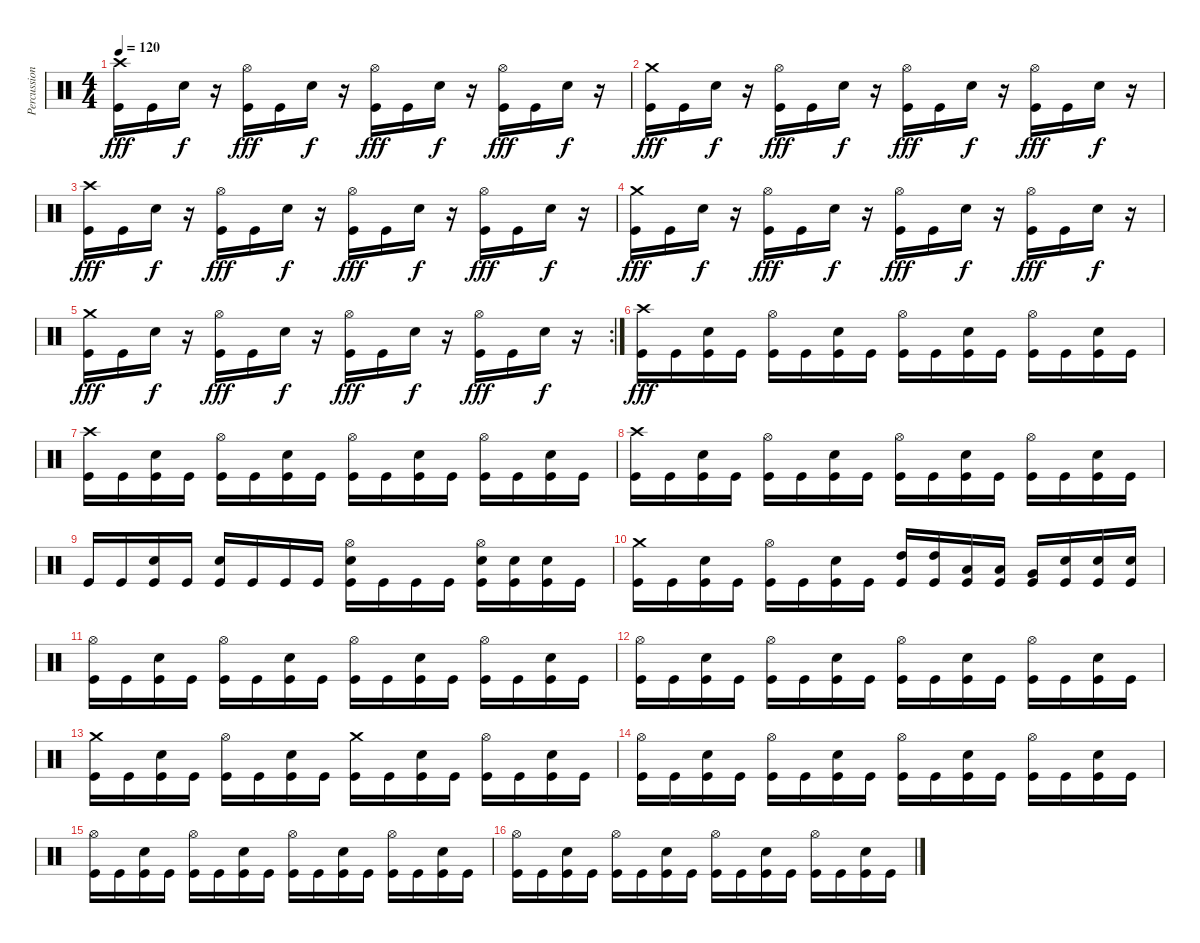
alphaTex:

\track ("Percussion" "Percussion") {instrument percussion}
\staff {score}
\articulation defaults
\ts (4 4)
\tempo 120
\clef neutral
\ks c
("Crash high (hit)" "Kick (hit)").16{dy fff} "Kick (hit)".16 "Electric Snare (hit)".16{dy f} r.16 ("Hi-Hat (open)" "Kick (hit)").16{dy fff} "Kick (hit)".16 "Electric Snare (hit)".16{dy f} r.16 ("Hi-Hat (open)" "Kick (hit)").16{dy fff} "Kick (hit)".16 "Electric Snare (hit)".16{dy f} r.16 ("Hi-Hat (open)" "Kick (hit)").16{dy fff} "Kick (hit)".16 "Electric Snare (hit)".16{dy f} r.16 |
("Crash medium (hit)" "Kick (hit)").16{dy fff} "Kick (hit)".16 "Electric Snare (hit)".16{dy f} r.16 ("Hi-Hat (open)" "Kick (hit)").16{dy fff} "Kick (hit)".16 "Electric Snare (hit)".16{dy f} r.16 ("Hi-Hat (open)" "Kick (hit)").16{dy fff} "Kick (hit)".16 "Electric Snare (hit)".16{dy f} r.16 ("Hi-Hat (open)" "Kick (hit)").16{dy fff} "Kick (hit)".16 "Electric Snare (hit)".16{dy f} r.16 |
("Crash high (hit)" "Kick (hit)").16{dy fff} "Kick (hit)".16 "Electric Snare (hit)".16{dy f} r.16 ("Hi-Hat (open)" "Kick (hit)").16{dy fff} "Kick (hit)".16 "Electric Snare (hit)".16{dy f} r.16 ("Hi-Hat (open)" "Kick (hit)").16{dy fff} "Kick (hit)".16 "Electric Snare (hit)".16{dy f} r.16 ("Hi-Hat (open)" "Kick (hit)").16{dy fff} "Kick (hit)".16 "Electric Snare (hit)".16{dy f} r.16 |
("Crash medium (hit)" "Kick (hit)").16{dy fff} "Kick (hit)".16 "Electric Snare (hit)".16{dy f} r.16 ("Hi-Hat (open)" "Kick (hit)").16{dy fff} "Kick (hit)".16 "Electric Snare (hit)".16{dy f} r.16 ("Hi-Hat (open)" "Kick (hit)").16{dy fff} "Kick (hit)".16 "Electric Snare (hit)".16{dy f} r.16 ("Hi-Hat (open)" "Kick (hit)").16{dy fff} "Kick (hit)".16 "Electric Snare (hit)".16{dy f} r.16 |
\rc 2
("Crash medium (hit)" "Kick (hit)").16{dy fff} "Kick (hit)".16 "Electric Snare (hit)".16{dy f} r.16 ("Hi-Hat (open)" "Kick (hit)").16{dy fff} "Kick (hit)".16 "Electric Snare (hit)".16{dy f} r.16 ("Hi-Hat (open)" "Kick (hit)").16{dy fff} "Kick (hit)".16 "Electric Snare (hit)".16{dy f} r.16 ("Hi-Hat (open)" "Kick (hit)").16{dy fff} "Kick (hit)".16 "Electric Snare (hit)".16{dy f} r.16 |
("Crash high (hit)" "Kick (hit)").16{dy fff} "Kick (hit)".16 ("Electric Snare (hit)" "Kick (hit)").16 "Kick (hit)".16 ("Hi-Hat (open)" "Kick (hit)").16 "Kick (hit)".16 ("Electric Snare (hit)" "Kick (hit)").16 "Kick (hit)".16 ("Hi-Hat (open)" "Kick (hit)").16 "Kick (hit)".16 ("Electric Snare (hit)" "Kick (hit)").16 "Kick (hit)".16 ("Hi-Hat (open)" "Kick (hit)").16 "Kick (hit)".16 ("Electric Snare (hit)" "Kick (hit)").16 "Kick (hit)".16 |
("Crash high (hit)" "Kick (hit)").16 "Kick (hit)".16 ("Electric Snare (hit)" "Kick (hit)").16 "Kick (hit)".16 ("Hi-Hat (open)" "Kick (hit)").16 "Kick (hit)".16 ("Electric Snare (hit)" "Kick (hit)").16 "Kick (hit)".16 ("Hi-Hat (open)" "Kick (hit)").16 "Kick (hit)".16 ("Electric Snare (hit)" "Kick (hit)").16 "Kick (hit)".16 ("Hi-Hat (open)" "Kick (hit)").16 "Kick (hit)".16 ("Electric Snare (hit)" "Kick (hit)").16 "Kick (hit)".16 |
("Crash high (hit)" "Kick (hit)").16 "Kick (hit)".16 ("Electric Snare (hit)" "Kick (hit)").16 "Kick (hit)".16 ("Hi-Hat (open)" "Kick (hit)").16 "Kick (hit)".16 ("Electric Snare (hit)" "Kick (hit)").16 "Kick (hit)".16 ("Hi-Hat (open)" "Kick (hit)").16 "Kick (hit)".16 ("Electric Snare (hit)" "Kick (hit)").16 "Kick (hit)".16 ("Hi-Hat (open)" "Kick (hit)").16 "Kick (hit)".16 ("Electric Snare (hit)" "Kick (hit)").16 "Kick (hit)".16 |
"Kick (hit)".16 "Kick (hit)".16 ("Electric Snare (hit)" "Kick (hit)").16 "Kick (hit)".16 ("Electric Snare (hit)" "Kick (hit)").16 "Kick (hit)".16 "Kick (hit)".16 "Kick (hit)".16 ("Hi-Hat (open)" "Electric Snare (hit)" "Kick (hit)").16 "Kick (hit)".16 "Kick (hit)".16 "Kick (hit)".16 ("Hi-Hat (open)" "Electric Snare (hit)" "Kick (hit)").16 ("Electric Snare (hit)" "Kick (hit)").16 ("Electric Snare (hit)" "Kick (hit)").16 "Kick (hit)".16 |
("Crash medium (hit)" "Kick (hit)").16 "Kick (hit)".16 ("Electric Snare (hit)" "Kick (hit)").16 "Kick (hit)".16 ("Hi-Hat (open)" "Kick (hit)").16 "Kick (hit)".16 ("Electric Snare (hit)" "Kick (hit)").16 "Kick (hit)".16 ("High Tom (hit)" "Kick (hit)").16 ("High Tom (hit)" "Kick (hit)").16 ("Low Tom (hit)" "Kick (hit)").16 ("Low Tom (hit)" "Kick (hit)").16 ("Very Low Tom (hit)" "Kick (hit)").16 ("Electric Snare (hit)" "Kick (hit)").16 ("Electric Snare (hit)" "Kick (hit)").16 ("Electric Snare (hit)" "Kick (hit)").16 |
("Hi-Hat (open)" "Kick (hit)").16 "Kick (hit)".16 ("Electric Snare (hit)" "Kick (hit)").16 "Kick (hit)".16 ("Hi-Hat (open)" "Kick (hit)").16 "Kick (hit)".16 ("Electric Snare (hit)" "Kick (hit)").16 "Kick (hit)".16 ("Hi-Hat (open)" "Kick (hit)").16 "Kick (hit)".16 ("Electric Snare (hit)" "Kick (hit)").16 "Kick (hit)".16 ("Hi-Hat (open)" "Kick (hit)").16 "Kick (hit)".16 ("Electric Snare (hit)" "Kick (hit)").16 "Kick (hit)".16 |
("Hi-Hat (open)" "Kick (hit)").16 "Kick (hit)".16 ("Electric Snare (hit)" "Kick (hit)").16 "Kick (hit)".16 ("Hi-Hat (open)" "Kick (hit)").16 "Kick (hit)".16 ("Electric Snare (hit)" "Kick (hit)").16 "Kick (hit)".16 ("Hi-Hat (open)" "Kick (hit)").16 "Kick (hit)".16 ("Electric Snare (hit)" "Kick (hit)").16 "Kick (hit)".16 ("Hi-Hat (open)" "Kick (hit)").16 "Kick (hit)".16 ("Electric Snare (hit)" "Kick (hit)").16 "Kick (hit)".16 |
("Crash medium (hit)" "Kick (hit)").16 "Kick (hit)".16 ("Electric Snare (hit)" "Kick (hit)").16 "Kick (hit)".16 ("Hi-Hat (open)" "Kick (hit)").16 "Kick (hit)".16 ("Electric Snare (hit)" "Kick (hit)").16 "Kick (hit)".16 ("Crash medium (hit)" "Kick (hit)").16 "Kick (hit)".16 ("Electric Snare (hit)" "Kick (hit)").16 "Kick (hit)".16 ("Hi-Hat (open)" "Kick (hit)").16 "Kick (hit)".16 ("Electric Snare (hit)" "Kick (hit)").16 "Kick (hit)".16 |
("Hi-Hat (open)" "Kick (hit)").16 "Kick (hit)".16 ("Electric Snare (hit)" "Kick (hit)").16 "Kick (hit)".16 ("Hi-Hat (open)" "Kick (hit)").16 "Kick (hit)".16 ("Electric Snare (hit)" "Kick (hit)").16 "Kick (hit)".16 ("Hi-Hat (open)" "Kick (hit)").16 "Kick (hit)".16 ("Electric Snare (hit)" "Kick (hit)").16 "Kick (hit)".16 ("Hi-Hat (open)" "Kick (hit)").16 "Kick (hit)".16 ("Electric Snare (hit)" "Kick (hit)").16 "Kick (hit)".16 |
("Hi-Hat (open)" "Kick (hit)").16 "Kick (hit)".16 ("Electric Snare (hit)" "Kick (hit)").16 "Kick (hit)".16 ("Hi-Hat (open)" "Kick (hit)").16 "Kick (hit)".16 ("Electric Snare (hit)" "Kick (hit)").16 "Kick (hit)".16 ("Hi-Hat (open)" "Kick (hit)").16 "Kick (hit)".16 ("Electric Snare (hit)" "Kick (hit)").16 "Kick (hit)".16 ("Hi-Hat (open)" "Kick (hit)").16 "Kick (hit)".16 ("Electric Snare (hit)" "Kick (hit)").16 "Kick (hit)".16 |
("Hi-Hat (open)" "Kick (hit)").16 "Kick (hit)".16 ("Electric Snare (hit)" "Kick (hit)").16 "Kick (hit)".16 ("Hi-Hat (open)" "Kick (hit)").16 "Kick (hit)".16 ("Electric Snare (hit)" "Kick (hit)").16 "Kick (hit)".16 ("Hi-Hat (open)" "Kick (hit)").16 "Kick (hit)".16 ("Electric Snare (hit)" "Kick (hit)").16 "Kick (hit)".16 ("Hi-Hat (open)" "Kick (hit)").16 "Kick (hit)".16 ("Electric Snare (hit)" "Kick (hit)").16 "Kick (hit)".16
